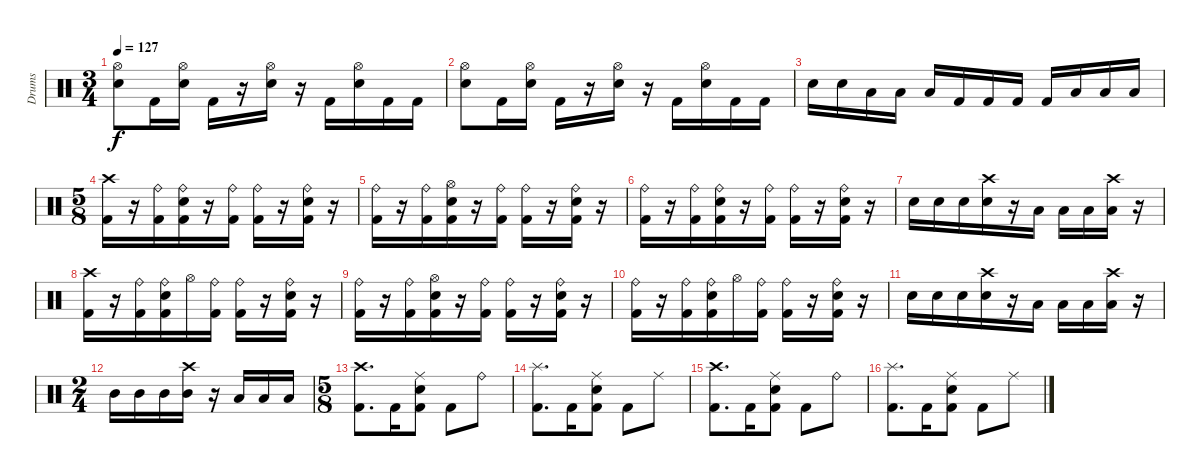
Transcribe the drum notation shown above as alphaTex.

\track ("Drums" "Drums") {instrument percussion}
\staff {score}
\articulation defaults
\ts (3 4)
\tempo 127
\clef neutral
\ks c
("Hi-Hat (open)" "Electric Snare (hit)").8{dy f} "Kick (hit) 2".16 ("Hi-Hat (open)" "Electric Snare (hit)").16 "Kick (hit) 2".16 r.16 ("Hi-Hat (open)" "Electric Snare (hit)").16 r.16 "Kick (hit) 2".16 ("Hi-Hat (open)" "Electric Snare (hit)").16 "Kick (hit) 2".16 "Kick (hit) 2".16 |
("Hi-Hat (open)" "Electric Snare (hit)").8 "Kick (hit) 2".16 ("Hi-Hat (open)" "Electric Snare (hit)").16 "Kick (hit) 2".16 r.16 ("Hi-Hat (open)" "Electric Snare (hit)").16 r.16 "Kick (hit) 2".16 ("Hi-Hat (open)" "Electric Snare (hit)").16 "Kick (hit) 2".16 "Kick (hit) 2".16 |
"Electric Snare (hit)".16 "Electric Snare (hit)".16 "Low Tom (hit)".16 "Low Tom (hit)".16 "Low Tom (hit)".16 "Kick (hit) 2".16 "Kick (hit) 2".16 "Kick (hit) 2".16 "Kick (hit) 2".16 "Low Tom (hit)".16 "Low Tom (hit)".16 "Low Tom (hit)".16 |
\ts (5 8)
("Crash high (hit)" "Kick (hit) 2").16 r.16 ("Ride (bell)" "Kick (hit) 2").16 ("Ride (bell)" "Electric Snare (hit)" "Kick (hit) 2").16 r.16 ("Ride (bell)" "Kick (hit) 2").16 ("Ride (bell)" "Kick (hit) 2").16 r.16 ("Ride (bell)" "Electric Snare (hit)" "Kick (hit) 2").16 r.16 |
("Ride (bell)" "Kick (hit) 2").16 r.16 ("Ride (bell)" "Kick (hit) 2").16 ("Hi-Hat (open)" "Electric Snare (hit)" "Kick (hit) 2").16 r.16 ("Ride (bell)" "Kick (hit) 2").16 ("Ride (bell)" "Kick (hit) 2").16 r.16 ("Ride (bell)" "Electric Snare (hit)" "Kick (hit) 2").16 r.16 |
("Ride (bell)" "Kick (hit) 2").16 r.16 ("Ride (bell)" "Kick (hit) 2").16 ("Ride (bell)" "Electric Snare (hit)" "Kick (hit) 2").16 r.16 ("Ride (bell)" "Kick (hit) 2").16 ("Ride (bell)" "Kick (hit) 2").16 r.16 ("Ride (bell)" "Electric Snare (hit)" "Kick (hit) 2").16 r.16 |
"Electric Snare (hit)".16 "Electric Snare (hit)".16 "Electric Snare (hit)".16 ("Crash high (hit)" "Electric Snare (hit)").16 r.16 "Low Tom (hit)".16 "Low Tom (hit)".16 "Low Tom (hit)".16 ("Crash high (hit)" "Low Tom (hit)").16 r.16 |
("Crash high (hit)" "Kick (hit) 2").16 r.16 ("Ride (bell)" "Kick (hit) 2").16 ("Ride (bell)" "Electric Snare (hit)" "Kick (hit) 2").16 "Hi-Hat (open)".16 ("Ride (bell)" "Kick (hit) 2").16 ("Ride (bell)" "Kick (hit) 2").16 r.16 ("Ride (bell)" "Electric Snare (hit)" "Kick (hit) 2").16 r.16 |
("Ride (bell)" "Kick (hit) 2").16 r.16 ("Ride (bell)" "Kick (hit) 2").16 ("Hi-Hat (open)" "Electric Snare (hit)" "Kick (hit) 2").16 r.16 ("Ride (bell)" "Kick (hit) 2").16 ("Ride (bell)" "Kick (hit) 2").16 r.16 ("Ride (bell)" "Electric Snare (hit)" "Kick (hit) 2").16 r.16 |
("Ride (bell)" "Kick (hit) 2").16 r.16 ("Ride (bell)" "Kick (hit) 2").16 ("Ride (bell)" "Electric Snare (hit)" "Kick (hit) 2").16 "Hi-Hat (open)".16 ("Ride (bell)" "Kick (hit) 2").16 ("Ride (bell)" "Kick (hit) 2").16 r.16 ("Ride (bell)" "Electric Snare (hit)" "Kick (hit) 2").16 r.16 |
"Electric Snare (hit)".16 "Electric Snare (hit)".16 "Electric Snare (hit)".16 ("Crash high (hit)" "Electric Snare (hit)").16 r.16 "Low Tom (hit)".16 "Low Tom (hit)".16 "Low Tom (hit)".16 ("Crash high (hit)" "Low Tom (hit)").16 r.16 |
\ts (2 4)
"Mid Tom (hit)".16 "Mid Tom (hit)".16 "Mid Tom (hit)".16 ("Crash high (hit)" "Mid Tom (hit)").16 r.16 "Low Tom (hit)".16 "Low Tom (hit)".16 "Low Tom (hit)".16 |
\ts (5 8)
("Crash high (hit)" "Kick (hit) 2").8{d} "Kick (hit) 2".16 ("Ride (middle)" "Electric Snare (hit)" "Kick (hit) 2").8 "Kick (hit) 2".8 "Ride (bell)".8 |
("Splash (hit)" "Kick (hit) 2").8{d} "Kick (hit) 2".16 ("Ride (middle)" "Electric Snare (hit)" "Kick (hit) 2").8 "Kick (hit) 2".8 "Ride (middle)".8 |
("Crash high (hit)" "Kick (hit) 2").8{d} "Kick (hit) 2".16 ("Ride (middle)" "Electric Snare (hit)" "Kick (hit) 2").8 "Kick (hit) 2".8 "Ride (bell)".8 |
("Splash (hit)" "Kick (hit) 2").8{d} "Kick (hit) 2".16 ("Ride (middle)" "Electric Snare (hit)" "Kick (hit) 2").8 "Kick (hit) 2".8 "Ride (middle)".8
